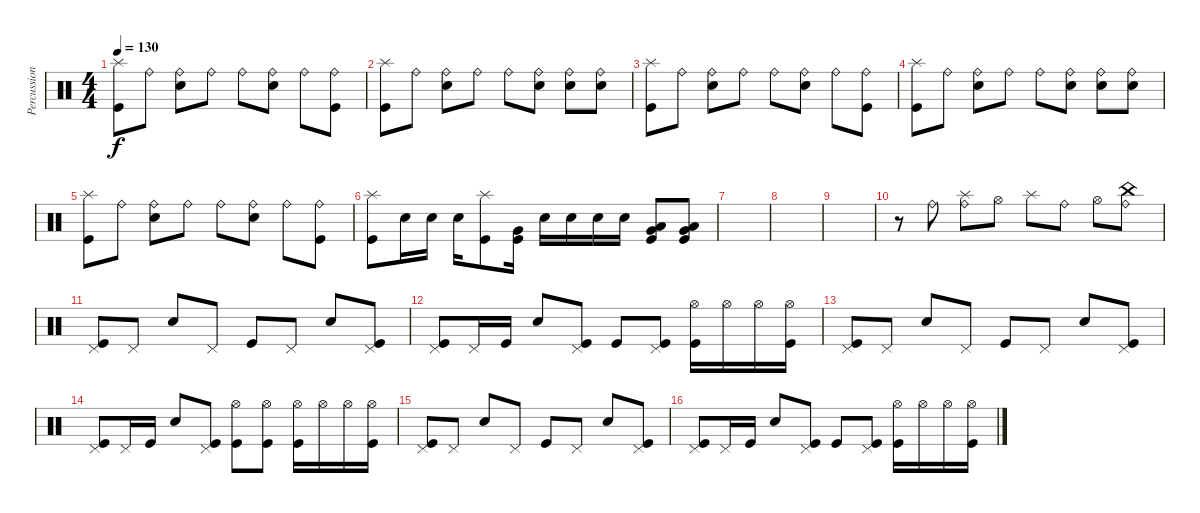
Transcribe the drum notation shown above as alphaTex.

\track ("Percussion" "Percussion") {instrument percussion}
\staff {score}
\articulation defaults
\ts (4 4)
\tempo 130
\clef neutral
\ks c
("Splash (hit)" "Kick (hit)").8{dy f} "Ride (bell)".8 ("Ride (bell)" "Electric Snare (hit)").8 "Ride (bell)".8 "Ride (bell)".8 ("Ride (bell)" "Electric Snare (hit)").8 "Ride (bell)".8 ("Ride (bell)" "Kick (hit)").8 |
("Splash (hit)" "Kick (hit)").8 "Ride (bell)".8 ("Ride (bell)" "Electric Snare (hit)").8 "Ride (bell)".8 "Ride (bell)".8 ("Ride (bell)" "Electric Snare (hit)").8 ("Ride (bell)" "Electric Snare (hit)").8 ("Ride (bell)" "Electric Snare (hit)").8 |
("Splash (hit)" "Kick (hit)").8 "Ride (bell)".8 ("Ride (bell)" "Electric Snare (hit)").8 "Ride (bell)".8 "Ride (bell)".8 ("Ride (bell)" "Electric Snare (hit)").8 "Ride (bell)".8 ("Ride (bell)" "Kick (hit)").8 |
("Splash (hit)" "Kick (hit)").8 "Ride (bell)".8 ("Ride (bell)" "Electric Snare (hit)").8 "Ride (bell)".8 "Ride (bell)".8 ("Ride (bell)" "Electric Snare (hit)").8 ("Ride (bell)" "Electric Snare (hit)").8 ("Ride (bell)" "Electric Snare (hit)").8 |
("Splash (hit)" "Kick (hit)").8 "Ride (bell)".8 ("Ride (bell)" "Electric Snare (hit)").8 "Ride (bell)".8 "Ride (bell)".8 ("Ride (bell)" "Electric Snare (hit)").8 "Ride (bell)".8 ("Ride (bell)" "Kick (hit)").8 |
("Splash (hit)" "Kick (hit)").8 "Electric Snare (hit)".16 "Electric Snare (hit)".16 "Electric Snare (hit)".16 ("Splash (hit)" "Kick (hit)").8 ("Very Low Tom (hit)" "Kick (hit)").16 "Electric Snare (hit)".16 "Electric Snare (hit)".16 "Electric Snare (hit)".16 "Electric Snare (hit)".16 ("Low Floor Tom (hit)" "Very Low Tom (hit)" "Kick (hit)").8 ("Low Floor Tom (hit)" "Very Low Tom (hit)" "Kick (hit)").8 |
|
|
|
r.8 "Ride (bell)".8 ("Ride (bell)" "Splash (hit)").8 "Hi-Hat (open)".8 "Splash (hit)".8 "Ride (bell)".8 "Hi-Hat (open)".8 ("Ride (bell)" "China (hit)").8 |
("Pedal Hi-Hat (hit)" "Kick (hit)").8 "Pedal Hi-Hat (hit)".8 "Electric Snare (hit)".8 "Pedal Hi-Hat (hit)".8 "Kick (hit)".8 "Pedal Hi-Hat (hit)".8 "Electric Snare (hit)".8 ("Pedal Hi-Hat (hit)" "Kick (hit)").8 |
("Pedal Hi-Hat (hit)" "Kick (hit)").8 "Pedal Hi-Hat (hit)".16 "Kick (hit)".16 "Electric Snare (hit)".8 ("Pedal Hi-Hat (hit)" "Kick (hit)").8 "Kick (hit)".8 ("Pedal Hi-Hat (hit)" "Kick (hit)").8 ("Hi-Hat (open)" "Kick (hit)").16 "Hi-Hat (open)".16 "Hi-Hat (open)".16 ("Hi-Hat (open)" "Kick (hit)").16 |
("Pedal Hi-Hat (hit)" "Kick (hit)").8 "Pedal Hi-Hat (hit)".8 "Electric Snare (hit)".8 "Pedal Hi-Hat (hit)".8 "Kick (hit)".8 "Pedal Hi-Hat (hit)".8 "Electric Snare (hit)".8 ("Pedal Hi-Hat (hit)" "Kick (hit)").8 |
("Pedal Hi-Hat (hit)" "Kick (hit)").8 "Pedal Hi-Hat (hit)".16 "Kick (hit)".16 "Electric Snare (hit)".8 ("Pedal Hi-Hat (hit)" "Kick (hit)").8 ("Hi-Hat (open)" "Kick (hit)").8 ("Hi-Hat (open)" "Kick (hit)").8 ("Hi-Hat (open)" "Kick (hit)").16 "Hi-Hat (open)".16 "Hi-Hat (open)".16 ("Hi-Hat (open)" "Kick (hit)").16 |
("Pedal Hi-Hat (hit)" "Kick (hit)").8 "Pedal Hi-Hat (hit)".8 "Electric Snare (hit)".8 "Pedal Hi-Hat (hit)".8 "Kick (hit)".8 "Pedal Hi-Hat (hit)".8 "Electric Snare (hit)".8 ("Pedal Hi-Hat (hit)" "Kick (hit)").8 |
("Pedal Hi-Hat (hit)" "Kick (hit)").8 "Pedal Hi-Hat (hit)".16 "Kick (hit)".16 "Electric Snare (hit)".8 ("Pedal Hi-Hat (hit)" "Kick (hit)").8 "Kick (hit)".8 ("Pedal Hi-Hat (hit)" "Kick (hit)").8 ("Hi-Hat (open)" "Kick (hit)").16 "Hi-Hat (open)".16 "Hi-Hat (open)".16 ("Hi-Hat (open)" "Kick (hit)").16
